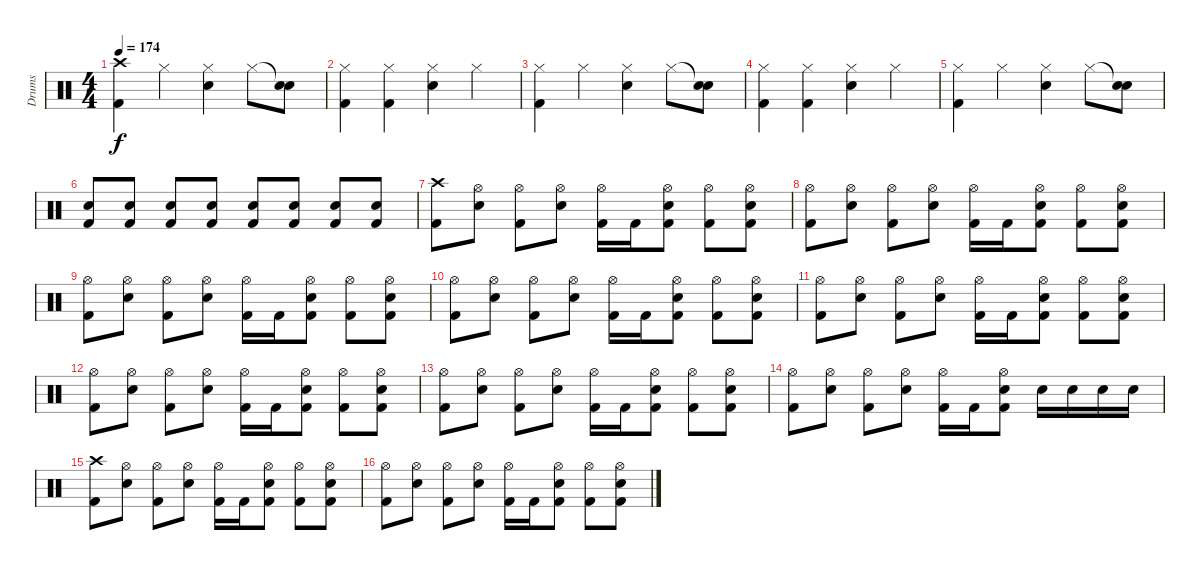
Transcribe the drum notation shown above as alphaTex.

\track ("Drums" "Drums") {instrument percussion}
\staff {score}
\articulation defaults
\ts (4 4)
\tempo 174
\clef neutral
\ks c
("Crash high (hit)" "Kick (hit) 2").4{dy f} "Hi-Hat (closed)".4 ("Hi-Hat (closed)" "Electric Snare (hit)").4 "Hi-Hat (closed)".8 ("Snare (hit)"{t} "Electric Snare (hit)").8 |
("Hi-Hat (closed)" "Kick (hit) 2").4 ("Hi-Hat (closed)" "Kick (hit) 2").4 ("Hi-Hat (closed)" "Electric Snare (hit)").4 "Hi-Hat (closed)".4 |
("Hi-Hat (closed)" "Kick (hit) 2").4 "Hi-Hat (closed)".4 ("Hi-Hat (closed)" "Electric Snare (hit)").4 "Hi-Hat (closed)".8 ("Snare (hit)"{t} "Electric Snare (hit)").8 |
("Hi-Hat (closed)" "Kick (hit) 2").4 ("Hi-Hat (closed)" "Kick (hit) 2").4 ("Hi-Hat (closed)" "Electric Snare (hit)").4 "Hi-Hat (closed)".4 |
("Hi-Hat (closed)" "Kick (hit) 2").4 "Hi-Hat (closed)".4 ("Hi-Hat (closed)" "Electric Snare (hit)").4 "Hi-Hat (closed)".8 ("Snare (hit)"{t} "Electric Snare (hit)").8 |
("Kick (hit) 2" "Electric Snare (hit)").8 ("Kick (hit) 2" "Electric Snare (hit)").8 ("Kick (hit) 2" "Electric Snare (hit)").8 ("Kick (hit) 2" "Electric Snare (hit)").8 ("Kick (hit) 2" "Electric Snare (hit)").8 ("Kick (hit) 2" "Electric Snare (hit)").8 ("Kick (hit) 2" "Electric Snare (hit)").8 ("Kick (hit) 2" "Electric Snare (hit)").8 |
("Crash high (hit)" "Kick (hit) 2").8 ("Hi-Hat (open)" "Electric Snare (hit)").8 ("Hi-Hat (open)" "Kick (hit) 2").8 ("Hi-Hat (open)" "Electric Snare (hit)").8 ("Hi-Hat (open)" "Kick (hit) 2").16 "Kick (hit) 2".16 ("Hi-Hat (open)" "Electric Snare (hit)" "Kick (hit) 2").8 ("Hi-Hat (open)" "Kick (hit) 2").8 ("Hi-Hat (open)" "Electric Snare (hit)" "Kick (hit) 2").8 |
("Hi-Hat (open)" "Kick (hit) 2").8 ("Hi-Hat (open)" "Electric Snare (hit)").8 ("Hi-Hat (open)" "Kick (hit) 2").8 ("Hi-Hat (open)" "Electric Snare (hit)").8 ("Hi-Hat (open)" "Kick (hit) 2").16 "Kick (hit) 2".16 ("Hi-Hat (open)" "Electric Snare (hit)" "Kick (hit) 2").8 ("Hi-Hat (open)" "Kick (hit) 2").8 ("Hi-Hat (open)" "Electric Snare (hit)" "Kick (hit) 2").8 |
("Hi-Hat (open)" "Kick (hit) 2").8 ("Hi-Hat (open)" "Electric Snare (hit)").8 ("Hi-Hat (open)" "Kick (hit) 2").8 ("Hi-Hat (open)" "Electric Snare (hit)").8 ("Hi-Hat (open)" "Kick (hit) 2").16 "Kick (hit) 2".16 ("Hi-Hat (open)" "Electric Snare (hit)" "Kick (hit) 2").8 ("Hi-Hat (open)" "Kick (hit) 2").8 ("Hi-Hat (open)" "Electric Snare (hit)" "Kick (hit) 2").8 |
("Hi-Hat (open)" "Kick (hit) 2").8 ("Hi-Hat (open)" "Electric Snare (hit)").8 ("Hi-Hat (open)" "Kick (hit) 2").8 ("Hi-Hat (open)" "Electric Snare (hit)").8 ("Hi-Hat (open)" "Kick (hit) 2").16 "Kick (hit) 2".16 ("Hi-Hat (open)" "Electric Snare (hit)" "Kick (hit) 2").8 ("Hi-Hat (open)" "Kick (hit) 2").8 ("Hi-Hat (open)" "Electric Snare (hit)" "Kick (hit) 2").8 |
("Hi-Hat (open)" "Kick (hit) 2").8 ("Hi-Hat (open)" "Electric Snare (hit)").8 ("Hi-Hat (open)" "Kick (hit) 2").8 ("Hi-Hat (open)" "Electric Snare (hit)").8 ("Hi-Hat (open)" "Kick (hit) 2").16 "Kick (hit) 2".16 ("Hi-Hat (open)" "Electric Snare (hit)" "Kick (hit) 2").8 ("Hi-Hat (open)" "Kick (hit) 2").8 ("Hi-Hat (open)" "Electric Snare (hit)" "Kick (hit) 2").8 |
("Hi-Hat (open)" "Kick (hit) 2").8 ("Hi-Hat (open)" "Electric Snare (hit)").8 ("Hi-Hat (open)" "Kick (hit) 2").8 ("Hi-Hat (open)" "Electric Snare (hit)").8 ("Hi-Hat (open)" "Kick (hit) 2").16 "Kick (hit) 2".16 ("Hi-Hat (open)" "Electric Snare (hit)" "Kick (hit) 2").8 ("Hi-Hat (open)" "Kick (hit) 2").8 ("Hi-Hat (open)" "Electric Snare (hit)" "Kick (hit) 2").8 |
("Hi-Hat (open)" "Kick (hit) 2").8 ("Hi-Hat (open)" "Electric Snare (hit)").8 ("Hi-Hat (open)" "Kick (hit) 2").8 ("Hi-Hat (open)" "Electric Snare (hit)").8 ("Hi-Hat (open)" "Kick (hit) 2").16 "Kick (hit) 2".16 ("Hi-Hat (open)" "Electric Snare (hit)" "Kick (hit) 2").8 ("Hi-Hat (open)" "Kick (hit) 2").8 ("Hi-Hat (open)" "Electric Snare (hit)" "Kick (hit) 2").8 |
("Hi-Hat (open)" "Kick (hit) 2").8 ("Hi-Hat (open)" "Electric Snare (hit)").8 ("Hi-Hat (open)" "Kick (hit) 2").8 ("Hi-Hat (open)" "Electric Snare (hit)").8 ("Hi-Hat (open)" "Kick (hit) 2").16 "Kick (hit) 2".16 ("Hi-Hat (open)" "Electric Snare (hit)" "Kick (hit) 2").8 "Electric Snare (hit)".16 "Electric Snare (hit)".16 "Electric Snare (hit)".16 "Electric Snare (hit)".16 |
("Crash high (hit)" "Kick (hit) 2").8 ("Hi-Hat (open)" "Electric Snare (hit)").8 ("Hi-Hat (open)" "Kick (hit) 2").8 ("Hi-Hat (open)" "Electric Snare (hit)").8 ("Hi-Hat (open)" "Kick (hit) 2").16 "Kick (hit) 2".16 ("Hi-Hat (open)" "Electric Snare (hit)" "Kick (hit) 2").8 ("Hi-Hat (open)" "Kick (hit) 2").8 ("Hi-Hat (open)" "Electric Snare (hit)" "Kick (hit) 2").8 |
("Hi-Hat (open)" "Kick (hit) 2").8 ("Hi-Hat (open)" "Electric Snare (hit)").8 ("Hi-Hat (open)" "Kick (hit) 2").8 ("Hi-Hat (open)" "Electric Snare (hit)").8 ("Hi-Hat (open)" "Kick (hit) 2").16 "Kick (hit) 2".16 ("Hi-Hat (open)" "Electric Snare (hit)" "Kick (hit) 2").8 ("Hi-Hat (open)" "Kick (hit) 2").8 ("Hi-Hat (open)" "Electric Snare (hit)" "Kick (hit) 2").8
